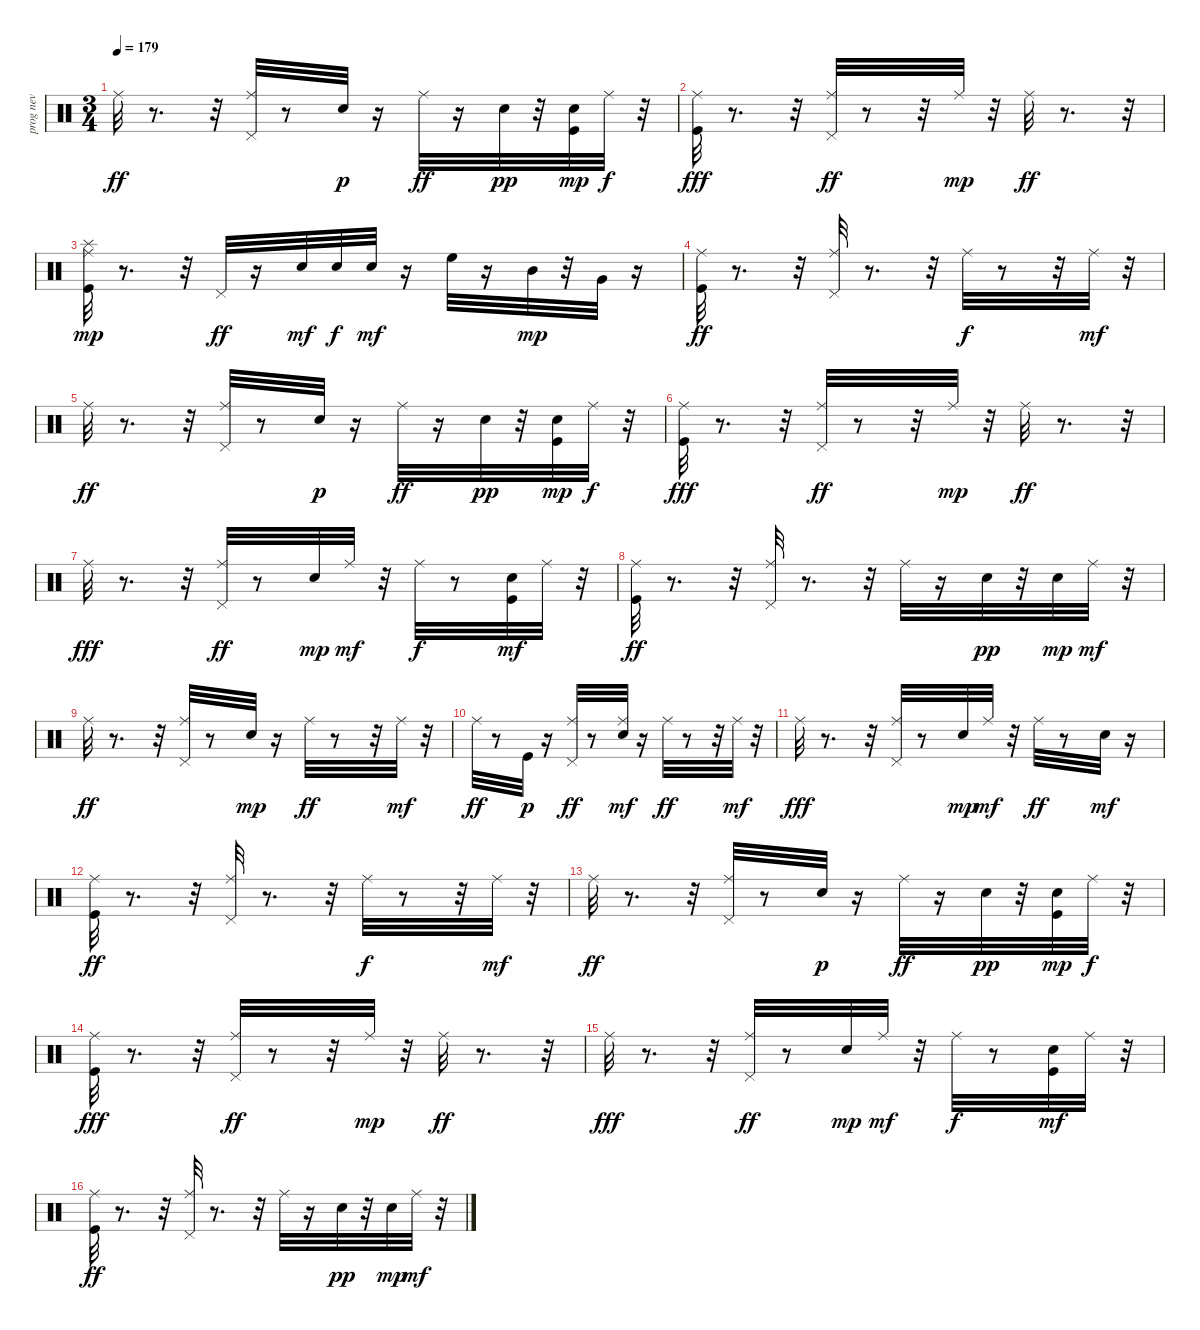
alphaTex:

\track ("prog nev" "prog nev") {instrument percussion}
\staff {score}
\articulation defaults
\ts (3 4)
\tempo 179
\clef neutral
\ks c "Ride (middle)".32{dy ff}
r.8{d} r.32 ("Pedal Hi-Hat (hit)" "Ride (middle)").32 r.8 "Hand Clap (hit)".32{dy p} r.16 "Ride (middle)".32{dy ff} r.16 "Snare (hit) 2".32{dy pp} r.32 ("Kick (hit)" "Snare (hit) 2").32{dy mp} "Ride (middle)".32{dy f} r.32 |
("Kick (hit)" "Ride (middle)").32{dy fff} r.8{d} r.32 ("Pedal Hi-Hat (hit)" "Ride (middle)").32{dy ff} r.8 r.32 "Ride (middle)".32{dy mp} r.32 "Ride (middle)".32{dy ff} r.8{d} r.32 |
("Kick (hit)" "Ride (middle)" "Splash (hit)").32{dy mp} r.8{d} r.32 "Pedal Hi-Hat (hit)".32{dy ff} r.16 "Snare (hit) 2".32{dy mf} "Snare (hit) 2".32{dy f} "Hand Clap (hit)".32{dy mf} r.16 "High Floor Tom (hit)".32 r.16 "Mid Tom (hit)".32{dy mp} r.32 "Very Low Tom (hit)".32 r.16 |
("Kick (hit)" "Ride (middle)").32{dy ff} r.8{d} r.32 ("Pedal Hi-Hat (hit)" "Ride (middle)").32 r.8{d} r.32 "Ride (middle)".32{dy f} r.8 r.32 "Ride (middle)".32{dy mf} r.32 |
"Ride (middle)".32{dy ff} r.8{d} r.32 ("Pedal Hi-Hat (hit)" "Ride (middle)").32 r.8 "Hand Clap (hit)".32{dy p} r.16 "Ride (middle)".32{dy ff} r.16 "Snare (hit) 2".32{dy pp} r.32 ("Kick (hit)" "Snare (hit) 2").32{dy mp} "Ride (middle)".32{dy f} r.32 |
("Kick (hit)" "Ride (middle)").32{dy fff} r.8{d} r.32 ("Pedal Hi-Hat (hit)" "Ride (middle)").32{dy ff} r.8 r.32 "Ride (middle)".32{dy mp} r.32 "Ride (middle)".32{dy ff} r.8{d} r.32 |
"Ride (middle)".32{dy fff} r.8{d} r.32 ("Pedal Hi-Hat (hit)" "Ride (middle)").32{dy ff} r.8 "Snare (hit) 2".32{dy mp} "Ride (middle)".32{dy mf} r.32 "Ride (middle)".32{dy f} r.8 ("Kick (hit)" "Snare (hit) 2").32{dy mf} "Ride (middle)".32 r.32 |
("Kick (hit)" "Ride (middle)").32{dy ff} r.8{d} r.32 ("Pedal Hi-Hat (hit)" "Ride (middle)").32 r.8{d} r.32 "Ride (middle)".32 r.16 "Snare (hit) 2".32{dy pp} r.32 "Snare (hit) 2".32{dy mp} "Ride (middle)".32{dy mf} r.32 |
"Ride (middle)".32{dy ff} r.8{d} r.32 ("Pedal Hi-Hat (hit)" "Ride (middle)").32 r.8 "Snare (hit) 2".32{dy mp} r.16 "Ride (middle)".32{dy ff} r.8 r.32 "Ride (middle)".32{dy mf} r.32 |
"Ride (middle)".32{dy ff} r.8 "Kick (hit)".32{dy p} r.16 ("Pedal Hi-Hat (hit)" "Ride (middle)").32{dy ff} r.8 ("Hand Clap (hit)" "Ride (middle)").32{dy mf} r.16 "Ride (middle)".32{dy ff} r.8 r.32 "Ride (middle)".32{dy mf} r.32 |
"Ride (middle)".32{dy fff} r.8{d} r.32 ("Pedal Hi-Hat (hit)" "Ride (middle)").32 r.8 "Snare (hit) 2".32{dy mp} "Ride (middle)".32{dy mf} r.32 "Ride (middle)".32{dy ff} r.8 "Snare (hit) 2".32{dy mf} r.16 |
("Kick (hit)" "Ride (middle)").32{dy ff} r.8{d} r.32 ("Pedal Hi-Hat (hit)" "Ride (middle)").32 r.8{d} r.32 "Ride (middle)".32{dy f} r.8 r.32 "Ride (middle)".32{dy mf} r.32 |
"Ride (middle)".32{dy ff} r.8{d} r.32 ("Pedal Hi-Hat (hit)" "Ride (middle)").32 r.8 "Hand Clap (hit)".32{dy p} r.16 "Ride (middle)".32{dy ff} r.16 "Snare (hit) 2".32{dy pp} r.32 ("Kick (hit)" "Snare (hit) 2").32{dy mp} "Ride (middle)".32{dy f} r.32 |
("Kick (hit)" "Ride (middle)").32{dy fff} r.8{d} r.32 ("Pedal Hi-Hat (hit)" "Ride (middle)").32{dy ff} r.8 r.32 "Ride (middle)".32{dy mp} r.32 "Ride (middle)".32{dy ff} r.8{d} r.32 |
"Ride (middle)".32{dy fff} r.8{d} r.32 ("Pedal Hi-Hat (hit)" "Ride (middle)").32{dy ff} r.8 "Snare (hit) 2".32{dy mp} "Ride (middle)".32{dy mf} r.32 "Ride (middle)".32{dy f} r.8 ("Kick (hit)" "Snare (hit) 2").32{dy mf} "Ride (middle)".32 r.32 |
("Kick (hit)" "Ride (middle)").32{dy ff} r.8{d} r.32 ("Pedal Hi-Hat (hit)" "Ride (middle)").32 r.8{d} r.32 "Ride (middle)".32 r.16 "Snare (hit) 2".32{dy pp} r.32 "Snare (hit) 2".32{dy mp} "Ride (middle)".32{dy mf} r.32
